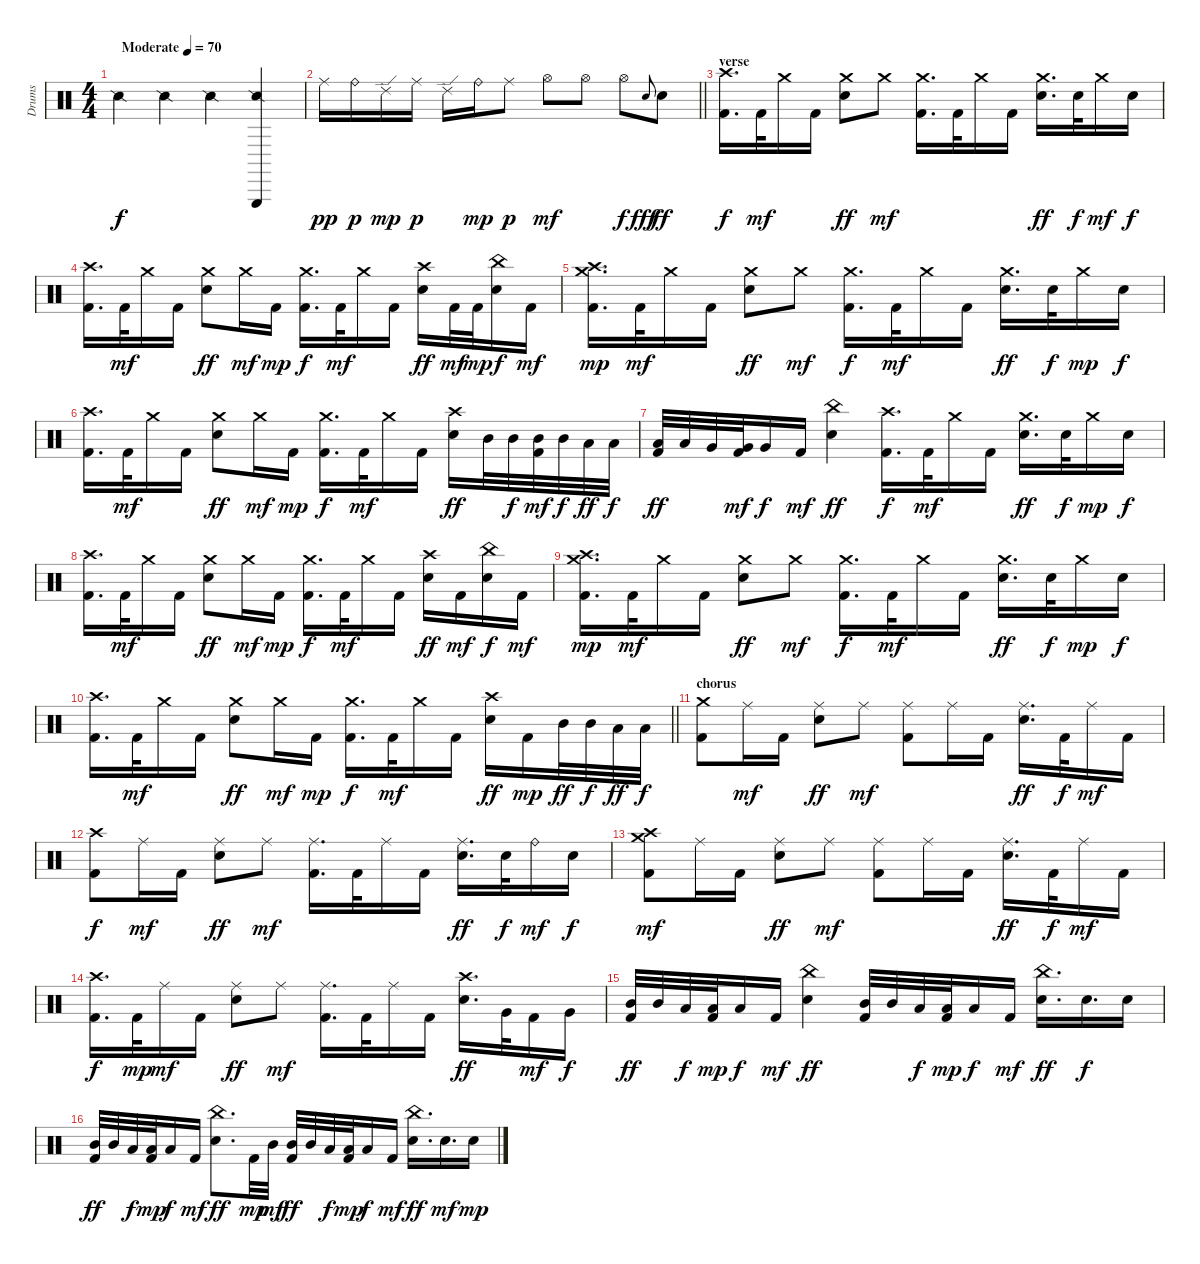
\track ("Drums" "Drums") {instrument percussion}
\staff {score}
\articulation defaults
\ts (4 4)
\tempo (70 "Moderate")
\clef neutral
\ks c "Snare (side stick) 2".4{dy f} "Snare (side stick) 2".4 "Snare (side stick) 2".4
("Triangle (hit)" "Snare (side stick) 2").4 |
\barLineRight lightlight "Ride (middle)".16{dy pp} "Ride (bell)".16{dy p} "Ride (edge) 2".16{dy mp} "Ride (middle)".16{dy p} "Ride (edge) 2".16 "Ride (bell)".16{dy mp} "Ride (middle)".8{dy p} "Hi-Hat (open)".8{dy mf} "Hi-Hat (open)".8 "Hi-Hat (open)".8{dy f} "Electric Snare (hit)".8{gr onbeat dy fff} "Electric Snare (hit)".8{dy ff}
|
\section ("" "verse")
("Crash high (hit)" "Kick (hit) 2").16{d dy f} "Kick (hit) 2".32{dy mf} "Crash medium (hit)".16 "Kick (hit) 2".16 ("Crash medium (hit)" "Electric Snare (hit)").8{dy ff} "Crash medium (hit)".8{dy mf} ("Crash medium (hit)" "Kick (hit) 2").16{d} "Kick (hit) 2".32 "Crash medium (hit)".16 "Kick (hit) 2".16 ("Crash medium (hit)" "Electric Snare (hit)").16{d dy ff} "Electric Snare (hit)".32{dy f} "Crash medium (hit)".16{dy mf} "Electric Snare (hit)".16{dy f} |
("Crash high (hit)" "Kick (hit) 2").16{d} "Kick (hit) 2".32{dy mf} "Crash medium (hit)".16 "Kick (hit) 2".16 ("Crash medium (hit)" "Electric Snare (hit)").8{dy ff} "Crash medium (hit)".16{dy mf} "Kick (hit) 2".16{dy mp} ("Crash medium (hit)" "Kick (hit) 2").16{d dy f} "Kick (hit) 2".32{dy mf} "Crash medium (hit)".16 "Kick (hit) 2".16 ("Crash high (hit)" "Electric Snare (hit)").16{dy ff} "Kick (hit) 2".32{dy mf} "Kick (hit) 2".32{dy mp} ("China (hit)" "Electric Snare (hit)").16{dy f} "Kick (hit) 2".16{dy mf} |
("Crash medium (hit)" "Crash high (hit)" "Kick (hit) 2").16{d dy mp} "Kick (hit) 2".32{dy mf} "Crash medium (hit)".16 "Kick (hit) 2".16 ("Crash medium (hit)" "Electric Snare (hit)").8{dy ff} "Crash medium (hit)".8{dy mf} ("Crash medium (hit)" "Kick (hit) 2").16{d dy f} "Kick (hit) 2".32{dy mf} "Crash medium (hit)".16 "Kick (hit) 2".16 ("Crash medium (hit)" "Electric Snare (hit)").16{d dy ff} "Electric Snare (hit)".32{dy f} "Crash medium (hit)".16{dy mp} "Electric Snare (hit)".16{dy f} |
("Crash high (hit)" "Kick (hit) 2").16{d} "Kick (hit) 2".32{dy mf} "Crash medium (hit)".16 "Kick (hit) 2".16 ("Crash medium (hit)" "Electric Snare (hit)").8{dy ff} "Crash medium (hit)".16{dy mf} "Kick (hit) 2".16{dy mp} ("Crash medium (hit)" "Kick (hit) 2").16{d dy f} "Kick (hit) 2".32{dy mf} "Crash medium (hit)".16 "Kick (hit) 2".16 ("Crash high (hit)" "Electric Snare (hit)").16{dy ff} "Mid Tom (hit)".32 "Mid Tom (hit)".32{dy f} ("Mid Tom (hit)" "Kick (hit) 2").32{dy mf} "Mid Tom (hit)".32{dy f} "Low Tom (hit)".32{dy ff} "Low Tom (hit)".32{dy f} |
("Low Tom (hit)" "Kick (hit) 2").32{dy ff} "Low Tom (hit)".32 "Very Low Tom (hit)".32 ("Very Low Tom (hit)" "Kick (hit) 2").32{dy mf} "Very Low Tom (hit)".16{dy f} "Kick (hit) 2".16{dy mf} ("China (hit)" "Electric Snare (hit)").4{dy ff} ("Crash high (hit)" "Kick (hit) 2").16{d dy f} "Kick (hit) 2".32{dy mf} "Crash medium (hit)".16 "Kick (hit) 2".16 ("Crash medium (hit)" "Electric Snare (hit)").16{d dy ff} "Electric Snare (hit)".32{dy f} "Crash medium (hit)".16{dy mp} "Electric Snare (hit)".16{dy f} |
("Crash high (hit)" "Kick (hit) 2").16{d} "Kick (hit) 2".32{dy mf} "Crash medium (hit)".16 "Kick (hit) 2".16 ("Crash medium (hit)" "Electric Snare (hit)").8{dy ff} "Crash medium (hit)".16{dy mf} "Kick (hit) 2".16{dy mp} ("Crash medium (hit)" "Kick (hit) 2").16{d dy f} "Kick (hit) 2".32{dy mf} "Crash medium (hit)".16 "Kick (hit) 2".16 ("Crash high (hit)" "Electric Snare (hit)").16{dy ff} "Kick (hit) 2".16{dy mf} ("China (hit)" "Electric Snare (hit)").16{dy f} "Kick (hit) 2".16{dy mf} |
("Crash medium (hit)" "Crash high (hit)" "Kick (hit) 2").16{d dy mp} "Kick (hit) 2".32{dy mf} "Crash medium (hit)".16 "Kick (hit) 2".16 ("Crash medium (hit)" "Electric Snare (hit)").8{dy ff} "Crash medium (hit)".8{dy mf} ("Crash medium (hit)" "Kick (hit) 2").16{d dy f} "Kick (hit) 2".32{dy mf} "Crash medium (hit)".16 "Kick (hit) 2".16 ("Crash medium (hit)" "Electric Snare (hit)").16{d dy ff} "Electric Snare (hit)".32{dy f} "Crash medium (hit)".16{dy mp} "Electric Snare (hit)".16{dy f} |
\barLineRight lightlight
("Crash high (hit)" "Kick (hit) 2").16{d} "Kick (hit) 2".32{dy mf} "Crash medium (hit)".16 "Kick (hit) 2".16 ("Crash medium (hit)" "Electric Snare (hit)").8{dy ff} "Crash medium (hit)".16{dy mf} "Kick (hit) 2".16{dy mp} ("Crash medium (hit)" "Kick (hit) 2").16{d dy f} "Kick (hit) 2".32{dy mf} "Crash medium (hit)".16 "Kick (hit) 2".16 ("Crash high (hit)" "Electric Snare (hit)").16{dy ff} "Kick (hit) 2".16{dy mp} "Mid Tom (hit)".32{dy ff} "Mid Tom (hit)".32{dy f} "Low Tom (hit)".32{dy ff} "Low Tom (hit)".32{dy f} |
\section ("" "chorus")
("Crash medium (hit)" "Kick (hit) 2").8 "Ride (middle)".16{dy mf} "Kick (hit) 2".16 ("Ride (middle)" "Electric Snare (hit)").8{dy ff} "Ride (middle)".8{dy mf} ("Ride (middle)" "Kick (hit) 2").8 "Ride (middle)".16 "Kick (hit) 2".16 ("Ride (middle)" "Electric Snare (hit)").16{d dy ff} "Kick (hit) 2".32{dy f} "Ride (middle)".16{dy mf} "Kick (hit) 2".16 |
("Crash high (hit)" "Kick (hit) 2").8{dy f} "Ride (middle)".16{dy mf} "Kick (hit) 2".16 ("Ride (middle)" "Electric Snare (hit)").8{dy ff} "Ride (middle)".8{dy mf} ("Ride (middle)" "Kick (hit) 2").16{d} "Kick (hit) 2".32 "Ride (middle)".16 "Kick (hit) 2".16 ("Ride (middle)" "Electric Snare (hit)").16{d dy ff} "Electric Snare (hit)".32{dy f} "Ride (bell)".16{dy mf} "Electric Snare (hit)".16{dy f} |
("Crash medium (hit)" "Crash high (hit)" "Kick (hit) 2").8{dy mf} "Ride (middle)".16 "Kick (hit) 2".16 ("Ride (middle)" "Electric Snare (hit)").8{dy ff} "Ride (middle)".8{dy mf} ("Ride (middle)" "Kick (hit) 2").8 "Ride (middle)".16 "Kick (hit) 2".16 ("Ride (middle)" "Electric Snare (hit)").16{d dy ff} "Kick (hit) 2".32{dy f} "Ride (middle)".16{dy mf} "Kick (hit) 2".16 |
("Crash high (hit)" "Kick (hit) 2").16{d dy f} "Kick (hit) 2".32{dy mp} "Ride (middle)".16{dy mf} "Kick (hit) 2".16 ("Ride (middle)" "Electric Snare (hit)").8{dy ff} "Ride (middle)".8{dy mf} ("Ride (middle)" "Kick (hit) 2").16{d} "Kick (hit) 2".32 "Ride (middle)".16 "Kick (hit) 2".16 ("Crash high (hit)" "Electric Snare (hit)").16{d dy ff} "Very Low Tom (hit)".32 "Kick (hit) 2".16{dy mf} "Very Low Tom (hit)".16{dy f} |
("Mid Tom (hit)" "Kick (hit) 2").32{dy ff} "Mid Tom (hit)".32 "Low Tom (hit)".32{dy f} ("Low Tom (hit)" "Kick (hit) 2").32{dy mp} "Low Tom (hit)".16{dy f} "Kick (hit) 2".16{dy mf} ("China (hit)" "Electric Snare (hit)").4{dy ff} ("Mid Tom (hit)" "Kick (hit) 2").32 "Mid Tom (hit)".32 "Low Tom (hit)".32{dy f} ("Low Tom (hit)" "Kick (hit) 2").32{dy mp} "Low Tom (hit)".16{dy f} "Kick (hit) 2".16{dy mf} ("China (hit)" "Electric Snare (hit)").16{d dy ff} "Electric Snare (hit)".16{d dy f} "Electric Snare (hit)".16 |
("Mid Tom (hit)" "Kick (hit) 2").32{dy ff} "Mid Tom (hit)".32 "Low Tom (hit)".32{dy f} ("Low Tom (hit)" "Kick (hit) 2").32{dy mp} "Low Tom (hit)".16{dy f} "Kick (hit) 2".16{dy mf} ("China (hit)" "Electric Snare (hit)").8{d dy ff} "Kick (hit) 2".32{dy mp} "Mid Tom (hit)".32{dy mf} ("Mid Tom (hit)" "Kick (hit) 2").32{dy ff} "Mid Tom (hit)".32 "Low Tom (hit)".32{dy f} ("Low Tom (hit)" "Kick (hit) 2").32{dy mp} "Low Tom (hit)".16{dy f} "Kick (hit) 2".16{dy mf} ("China (hit)" "Electric Snare (hit)").16{d dy ff} "Electric Snare (hit)".16{d dy mf} "Electric Snare (hit)".16{dy mp}
